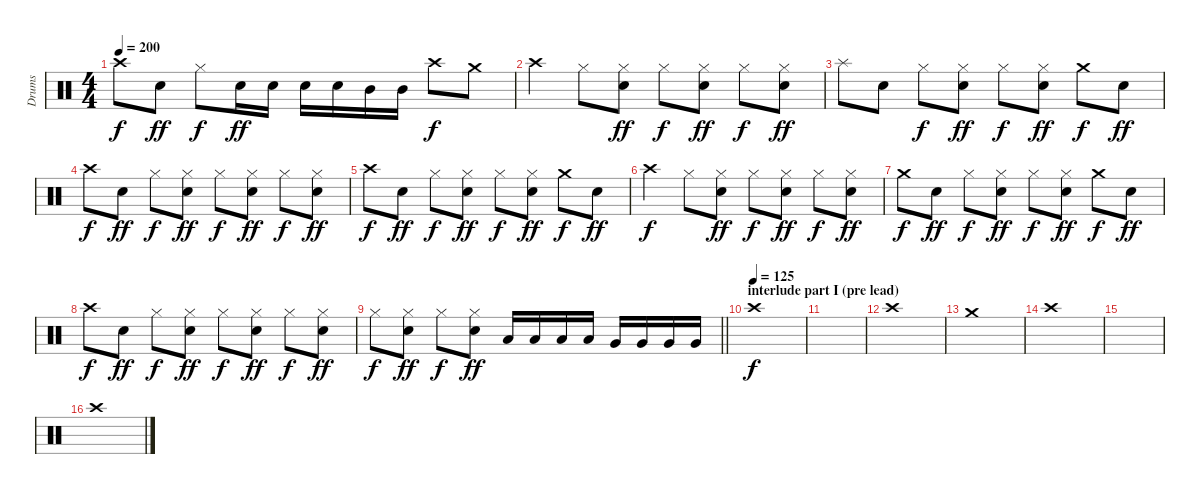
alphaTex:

\track ("Drums" "Drums") {instrument percussion}
\staff {score}
\articulation defaults
\ts (4 4)
\tempo 200
\clef neutral
\ks c "Crash high (hit)".8{dy f} "Snare (hit) 2".8{dy ff} "Hi-Hat (closed)".8{dy f} "Snare (hit) 2".16{dy ff} "Snare (hit) 2".16 "Snare (hit) 2".16 "Snare (hit) 2".16 "Mid Tom (hit)".16 "Mid Tom (hit)".16 "Crash high (hit)".8{dy f} "Crash medium (hit)".8
|
"Crash high (hit)".4 "Hi-Hat (closed)".8 ("Hi-Hat (closed)" "Snare (hit) 2").8{dy ff} "Hi-Hat (closed)".8{dy f} ("Hi-Hat (closed)" "Snare (hit) 2").8{dy ff} "Hi-Hat (closed)".8{dy f} ("Hi-Hat (closed)" "Snare (hit) 2").8{dy ff} |
"Splash (hit)".8 "Snare (hit) 2".8 "Hi-Hat (closed)".8{dy f} ("Hi-Hat (closed)" "Snare (hit) 2").8{dy ff} "Hi-Hat (closed)".8{dy f} ("Hi-Hat (closed)" "Snare (hit) 2").8{dy ff} "Crash medium (hit)".8{dy f} "Snare (hit) 2".8{dy ff} |
"Crash high (hit)".8{dy f} "Snare (hit) 2".8{dy ff} "Hi-Hat (closed)".8{dy f} ("Hi-Hat (closed)" "Snare (hit) 2").8{dy ff} "Hi-Hat (closed)".8{dy f} ("Hi-Hat (closed)" "Snare (hit) 2").8{dy ff} "Hi-Hat (closed)".8{dy f} ("Hi-Hat (closed)" "Snare (hit) 2").8{dy ff} |
"Crash high (hit)".8{dy f} "Snare (hit) 2".8{dy ff} "Hi-Hat (closed)".8{dy f} ("Hi-Hat (closed)" "Snare (hit) 2").8{dy ff} "Hi-Hat (closed)".8{dy f} ("Hi-Hat (closed)" "Snare (hit) 2").8{dy ff} "Crash medium (hit)".8{dy f} "Snare (hit) 2".8{dy ff} |
"Crash high (hit)".4{dy f} "Hi-Hat (closed)".8 ("Hi-Hat (closed)" "Snare (hit) 2").8{dy ff} "Hi-Hat (closed)".8{dy f} ("Hi-Hat (closed)" "Snare (hit) 2").8{dy ff} "Hi-Hat (closed)".8{dy f} ("Hi-Hat (closed)" "Snare (hit) 2").8{dy ff} |
"Crash medium (hit)".8{dy f} "Snare (hit) 2".8{dy ff} "Hi-Hat (closed)".8{dy f} ("Hi-Hat (closed)" "Snare (hit) 2").8{dy ff} "Hi-Hat (closed)".8{dy f} ("Hi-Hat (closed)" "Snare (hit) 2").8{dy ff} "Crash medium (hit)".8{dy f} "Snare (hit) 2".8{dy ff} |
"Crash high (hit)".8{dy f} "Snare (hit) 2".8{dy ff} "Hi-Hat (closed)".8{dy f} ("Hi-Hat (closed)" "Snare (hit) 2").8{dy ff} "Hi-Hat (closed)".8{dy f} ("Hi-Hat (closed)" "Snare (hit) 2").8{dy ff} "Hi-Hat (closed)".8{dy f} ("Hi-Hat (closed)" "Snare (hit) 2").8{dy ff} |
\barLineRight lightlight "Hi-Hat (closed)".8{dy f}
("Hi-Hat (closed)" "Snare (hit) 2").8{dy ff} "Hi-Hat (closed)".8{dy f} ("Hi-Hat (closed)" "Snare (hit) 2").8{dy ff} "Low Tom (hit)".16 "Low Tom (hit)".16 "Low Tom (hit)".16 "Low Tom (hit)".16 "Very Low Tom (hit)".16 "Very Low Tom (hit)".16 "Very Low Tom (hit)".16 "Very Low Tom (hit)".16 |
\section ("" "interlude part I (pre lead)")
\tempo (125)
"Crash high (hit)".1{dy f} |
|
"Crash high (hit)".1 |
"Crash medium (hit)".1 |
"Crash high (hit)".1 |
|
"Crash high (hit)".1
